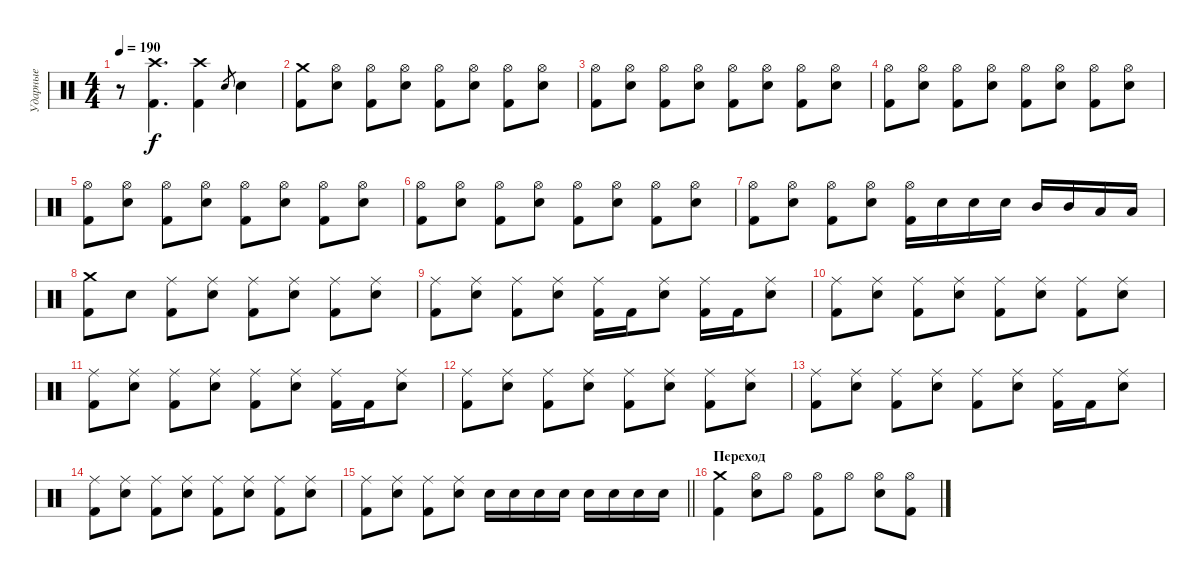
\track ("Ударные" "Ударные") {instrument percussion}
\staff {score}
\articulation defaults
\ts (4 4)
\tempo 190
\clef neutral
\ks c
r.8{dy f} ("Crash high (hit)" "Kick (hit) 2").4{d} ("Crash high (hit)" "Kick (hit) 2").4 "Electric Snare (hit)".8{gr} "Electric Snare (hit)".4 |
("Crash medium (hit)" "Kick (hit) 2").8 ("Hi-Hat (open)" "Electric Snare (hit)").8 ("Hi-Hat (open)" "Kick (hit) 2").8 ("Hi-Hat (open)" "Electric Snare (hit)").8 ("Hi-Hat (open)" "Kick (hit) 2").8 ("Hi-Hat (open)" "Electric Snare (hit)").8 ("Hi-Hat (open)" "Kick (hit) 2").8 ("Hi-Hat (open)" "Electric Snare (hit)").8 |
("Hi-Hat (open)" "Kick (hit) 2").8 ("Hi-Hat (open)" "Electric Snare (hit)").8 ("Hi-Hat (open)" "Kick (hit) 2").8 ("Hi-Hat (open)" "Electric Snare (hit)").8 ("Hi-Hat (open)" "Kick (hit) 2").8 ("Hi-Hat (open)" "Electric Snare (hit)").8 ("Hi-Hat (open)" "Kick (hit) 2").8 ("Hi-Hat (open)" "Electric Snare (hit)").8 |
("Hi-Hat (open)" "Kick (hit) 2").8 ("Hi-Hat (open)" "Electric Snare (hit)").8 ("Hi-Hat (open)" "Kick (hit) 2").8 ("Hi-Hat (open)" "Electric Snare (hit)").8 ("Hi-Hat (open)" "Kick (hit) 2").8 ("Hi-Hat (open)" "Electric Snare (hit)").8 ("Hi-Hat (open)" "Kick (hit) 2").8 ("Hi-Hat (open)" "Electric Snare (hit)").8 |
("Hi-Hat (open)" "Kick (hit) 2").8 ("Hi-Hat (open)" "Electric Snare (hit)").8 ("Hi-Hat (open)" "Kick (hit) 2").8 ("Hi-Hat (open)" "Electric Snare (hit)").8 ("Hi-Hat (open)" "Kick (hit) 2").8 ("Hi-Hat (open)" "Electric Snare (hit)").8 ("Hi-Hat (open)" "Kick (hit) 2").8 ("Hi-Hat (open)" "Electric Snare (hit)").8 |
("Hi-Hat (open)" "Kick (hit) 2").8 ("Hi-Hat (open)" "Electric Snare (hit)").8 ("Hi-Hat (open)" "Kick (hit) 2").8 ("Hi-Hat (open)" "Electric Snare (hit)").8 ("Hi-Hat (open)" "Kick (hit) 2").8 ("Hi-Hat (open)" "Electric Snare (hit)").8 ("Hi-Hat (open)" "Kick (hit) 2").8 ("Hi-Hat (open)" "Electric Snare (hit)").8 |
("Hi-Hat (open)" "Kick (hit) 2").8 ("Hi-Hat (open)" "Electric Snare (hit)").8 ("Hi-Hat (open)" "Kick (hit) 2").8 ("Hi-Hat (open)" "Electric Snare (hit)").8 ("Hi-Hat (open)" "Kick (hit) 2").16 "Electric Snare (hit)".16 "Electric Snare (hit)".16 "Electric Snare (hit)".16 "Mid Tom (hit)".16 "Mid Tom (hit)".16 "Low Tom (hit)".16 "Low Tom (hit)".16 |
("Crash medium (hit)" "Kick (hit) 2").8 "Electric Snare (hit)".8 ("Ride (middle)" "Kick (hit) 2").8 ("Ride (middle)" "Electric Snare (hit)").8 ("Ride (middle)" "Kick (hit) 2").8 ("Ride (middle)" "Electric Snare (hit)").8 ("Ride (middle)" "Kick (hit) 2").8 ("Ride (middle)" "Electric Snare (hit)").8 |
("Ride (middle)" "Kick (hit) 2").8 ("Ride (middle)" "Electric Snare (hit)").8 ("Ride (middle)" "Kick (hit) 2").8 ("Ride (middle)" "Electric Snare (hit)").8 ("Ride (middle)" "Kick (hit) 2").16 "Kick (hit) 2".16 ("Ride (middle)" "Electric Snare (hit)").8 ("Ride (middle)" "Kick (hit) 2").16 "Kick (hit) 2".16 ("Ride (middle)" "Electric Snare (hit)").8 |
("Ride (middle)" "Kick (hit) 2").8 ("Ride (middle)" "Electric Snare (hit)").8 ("Ride (middle)" "Kick (hit) 2").8 ("Ride (middle)" "Electric Snare (hit)").8 ("Ride (middle)" "Kick (hit) 2").8 ("Ride (middle)" "Electric Snare (hit)").8 ("Ride (middle)" "Kick (hit) 2").8 ("Ride (middle)" "Electric Snare (hit)").8 |
("Ride (middle)" "Kick (hit) 2").8 ("Ride (middle)" "Electric Snare (hit)").8 ("Ride (middle)" "Kick (hit) 2").8 ("Ride (middle)" "Electric Snare (hit)").8 ("Ride (middle)" "Kick (hit) 2").8 ("Ride (middle)" "Electric Snare (hit)").8 ("Ride (middle)" "Kick (hit) 2").16 "Kick (hit) 2".16 ("Ride (middle)" "Electric Snare (hit)").8 |
("Ride (middle)" "Kick (hit) 2").8 ("Ride (middle)" "Electric Snare (hit)").8 ("Ride (middle)" "Kick (hit) 2").8 ("Ride (middle)" "Electric Snare (hit)").8 ("Ride (middle)" "Kick (hit) 2").8 ("Ride (middle)" "Electric Snare (hit)").8 ("Ride (middle)" "Kick (hit) 2").8 ("Ride (middle)" "Electric Snare (hit)").8 |
("Ride (middle)" "Kick (hit) 2").8 ("Ride (middle)" "Electric Snare (hit)").8 ("Ride (middle)" "Kick (hit) 2").8 ("Ride (middle)" "Electric Snare (hit)").8 ("Ride (middle)" "Kick (hit) 2").8 ("Ride (middle)" "Electric Snare (hit)").8 ("Ride (middle)" "Kick (hit) 2").16 "Kick (hit) 2".16 ("Ride (middle)" "Electric Snare (hit)").8 |
("Ride (middle)" "Kick (hit) 2").8 ("Ride (middle)" "Electric Snare (hit)").8 ("Ride (middle)" "Kick (hit) 2").8 ("Ride (middle)" "Electric Snare (hit)").8 ("Ride (middle)" "Kick (hit) 2").8 ("Ride (middle)" "Electric Snare (hit)").8 ("Ride (middle)" "Kick (hit) 2").8 ("Ride (middle)" "Electric Snare (hit)").8 |
\barLineRight lightlight
("Ride (middle)" "Kick (hit) 2").8 ("Ride (middle)" "Electric Snare (hit)").8 ("Ride (middle)" "Kick (hit) 2").8 ("Ride (middle)" "Electric Snare (hit)").8 "Electric Snare (hit)".16 "Electric Snare (hit)".16 "Electric Snare (hit)".16 "Electric Snare (hit)".16 "Electric Snare (hit)".16 "Electric Snare (hit)".16 "Electric Snare (hit)".16 "Electric Snare (hit)".16 |
\section ("" "Переход")
("Crash medium (hit)" "Kick (hit) 2").4 ("Hi-Hat (open)" "Electric Snare (hit)").8 "Hi-Hat (open)".8 ("Hi-Hat (open)" "Kick (hit) 2").8 "Hi-Hat (open)".8 ("Hi-Hat (open)" "Electric Snare (hit)").8 ("Hi-Hat (open)" "Kick (hit) 2").8
